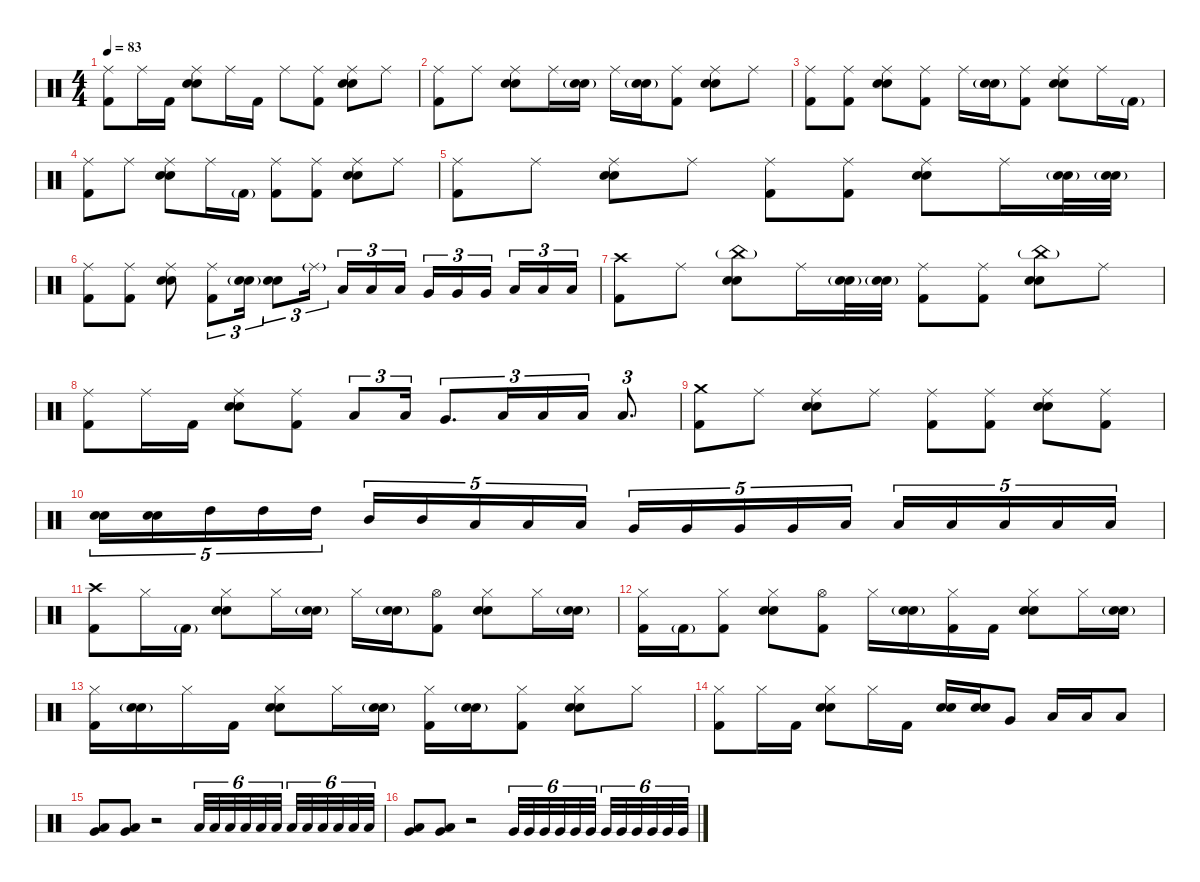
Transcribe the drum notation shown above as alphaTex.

\defaultSystemsLayout 4
\hideDynamics
\bracketExtendMode nobrackets
\singleTrackTrackNamePolicy hidden
\multiTrackTrackNamePolicy hidden
\firstSystemTrackNameMode fullname
\firstSystemTrackNameOrientation horizontal
\otherSystemsTrackNameOrientation horizontal
\track ("Batterie" "drm.") {instrument percussion}
\staff {score}
\articulation defaults
\ts (4 4)
\tempo 83
\clef neutral
\ks c
("Ride (middle)" "Kick (hit) 2").8{dy f beam Down} "Ride (middle)".16{beam Down} "Kick (hit) 2".16{dy mf beam Down} ("Ride (middle)" "Snare (hit) 2" "Snare (hit) 2").8{dy f beam Down} "Ride (middle)".16{beam Down} "Kick (hit) 2".16{dy mf beam Down} "Ride (middle)".8{dy f beam Down} ("Ride (middle)" "Kick (hit) 2").8{beam Down} ("Ride (middle)" "Snare (hit) 2" "Snare (hit) 2").8{beam Down} "Ride (middle)".8{beam Down} |
("Ride (middle)" "Kick (hit) 2").8{beam Down} "Ride (middle)".8{beam Down} ("Ride (middle)" "Snare (hit) 2" "Snare (hit) 2").8{beam Down} "Ride (middle)".16{beam Down} ("Snare (hit) 2"{g} "Snare (hit) 2"{g}).16{dy mf beam Down} "Ride (middle)".16{dy f beam Down} ("Snare (hit) 2"{g} "Snare (hit) 2"{g}).16{dy mp beam Down} ("Ride (middle)" "Kick (hit) 2").8{dy f beam Down} ("Ride (middle)" "Snare (hit) 2" "Snare (hit) 2").8{beam Down} "Ride (middle)".8{beam Down} |
("Ride (middle)" "Kick (hit) 2").8{beam Down} ("Ride (middle)" "Kick (hit) 2").8{beam Down} ("Ride (middle)" "Snare (hit) 2" "Snare (hit) 2").8{beam Down} ("Ride (middle)" "Kick (hit) 2").8{beam Down} "Ride (middle)".16{beam Down} ("Snare (hit) 2"{g} "Snare (hit) 2"{g}).16{dy mp beam Down} ("Ride (middle)" "Kick (hit) 2").8{dy f beam Down} ("Ride (middle)" "Snare (hit) 2" "Snare (hit) 2").8{beam Down} "Ride (middle)".16{beam Down} "Kick (hit) 2"{g}.16{beam Down} |
("Ride (middle)" "Kick (hit) 2").8{beam Down} "Ride (middle)".8{beam Down} ("Ride (middle)" "Snare (hit) 2" "Snare (hit) 2").8{beam Down} "Ride (middle)".16{beam Down} "Kick (hit) 2"{g}.16{dy mf beam Down} ("Ride (middle)" "Kick (hit) 2").8{dy f beam Down} ("Ride (middle)" "Kick (hit) 2").8{beam Down} ("Ride (middle)" "Snare (hit) 2" "Snare (hit) 2").8{beam Down} "Ride (middle)".8{beam Down} |
("Ride (middle)" "Kick (hit) 2").8{beam Down} "Ride (middle)".8{beam Down} ("Ride (middle)" "Snare (hit) 2" "Snare (hit) 2").8{beam Down} "Ride (middle)".8{beam Down} ("Ride (middle)" "Kick (hit) 2").8{beam Down} ("Ride (middle)" "Kick (hit) 2").8{beam Down} ("Ride (middle)" "Snare (hit) 2" "Snare (hit) 2").8{beam Down} "Ride (middle)".16{beam Down} ("Snare (hit) 2"{g} "Snare (hit) 2"{g}).32{dy mp beam Down} ("Snare (hit) 2"{g} "Snare (hit) 2"{g}).32{beam Down} |
("Ride (middle)" "Kick (hit) 2").8{dy f beam Down} ("Ride (middle)" "Kick (hit) 2").8{beam Down} ("Ride (middle)" "Snare (hit) 2" "Snare (hit) 2").8{beam Down} ("Ride (middle)" "Kick (hit) 2").8{tu (3 2) beam Down} ("Snare (hit) 2"{g} "Snare (hit) 2"{g}).16{tu (3 2) beam Down} ("Snare (hit) 2" "Snare (hit) 2").8{tu (3 2) beam Down} "Ride (middle)"{g}.16{tu (3 2) beam Down} "Low Tom (hit)".16{tu (3 2) beam Up} "Low Tom (hit)".16{tu (3 2) beam Up} "Low Tom (hit)".16{tu (3 2) beam Up} "Very Low Tom (hit)".16{tu (3 2) beam Up} "Very Low Tom (hit)".16{tu (3 2) beam Up} "Very Low Tom (hit)".16{tu (3 2) beam Up} "Low Floor Tom (hit)".16{tu (3 2) beam Up} "Low Floor Tom (hit)".16{tu (3 2) beam Up} "Low Floor Tom (hit)".16{tu (3 2) beam Up} |
("Crash high (hit)" "Kick (hit) 2").8{dy mf beam Down} "Ride (middle)".8{dy f beam Down} ("China (hit)"{g} "Snare (hit) 2" "Snare (hit) 2").8{dy mf beam Down} "Ride (middle)".16{dy f beam Down} ("Snare (hit) 2"{g} "Snare (hit) 2"{g}).32{dy mp beam Down} ("Snare (hit) 2"{g} "Snare (hit) 2"{g}).32{beam Down} ("Ride (middle)" "Kick (hit) 2").8{dy f beam Down} ("Ride (middle)" "Kick (hit) 2").8{beam Down} ("China (hit)"{g} "Snare (hit) 2" "Snare (hit) 2").8{dy mf beam Down} "Ride (middle)".8{dy f beam Down} |
("Ride (middle)" "Kick (hit) 2").8{beam Down} "Ride (middle)".16{beam Down} "Kick (hit) 2".16{dy mf beam Down} ("Ride (middle)" "Snare (hit) 2" "Snare (hit) 2").8{dy f beam Down} ("Ride (middle)" "Kick (hit) 2").8{beam Down} "Low Tom (hit)".8{tu (3 2) beam Up} "Low Tom (hit)".16{tu (3 2) beam Up} "Very Low Tom (hit)".8{d tu (3 2) beam Up} "Low Floor Tom (hit)".16{tu (3 2) beam Up} "Low Floor Tom (hit)".16{tu (3 2) beam Up} "Low Floor Tom (hit)".16{tu (3 2) beam Up} "Low Floor Tom (hit)".8{d tu (3 2) beam Up} |
("Crash medium (hit)" "Kick (hit) 2").8{dy mf beam Down} "Ride (middle)".8{dy f beam Down} ("Ride (middle)" "Snare (hit) 2" "Snare (hit) 2").8{beam Down} "Ride (middle)".8{beam Down} ("Ride (middle)" "Kick (hit) 2").8{beam Down} ("Ride (middle)" "Kick (hit) 2").8{beam Down} ("Ride (middle)" "Snare (hit) 2" "Snare (hit) 2").8{beam Down} ("Ride (middle)" "Kick (hit) 2").8{beam Down} |
("Snare (hit) 2" "Snare (hit) 2").16{tu (5 4) beam Down} ("Snare (hit) 2" "Snare (hit) 2").16{tu (5 4) dy mf beam Down} "High Tom (hit)".16{tu (5 4) dy ff beam Down} "High Tom (hit)".16{tu (5 4) dy f beam Down} "High Tom (hit)".16{tu (5 4) beam Down} "Mid Tom (hit)".16{tu (5 4) dy ff beam Up} "Mid Tom (hit)".16{tu (5 4) dy f beam Up} "Low Tom (hit)".16{tu (5 4) dy ff beam Up} "Low Tom (hit)".16{tu (5 4) dy f beam Up} "Low Tom (hit)".16{tu (5 4) beam Up} "Very Low Tom (hit)".16{tu (5 4) dy ff beam Up} "Very Low Tom (hit)".16{tu (5 4) dy f beam Up} "Very Low Tom (hit)".16{tu (5 4) beam Up} "Very Low Tom (hit)".16{tu (5 4) beam Up} "Low Floor Tom (hit)".16{tu (5 4) dy ff beam Up} "Low Floor Tom (hit)".16{tu (5 4) dy f beam Up} "Low Floor Tom (hit)".16{tu (5 4) beam Up} "Low Floor Tom (hit)".16{tu (5 4) dy ff beam Up} "Low Floor Tom (hit)".16{tu (5 4) dy f beam Up} "Low Floor Tom (hit)".16{tu (5 4) beam Up} |
("Crash high (hit)" "Kick (hit) 2").8{beam Down} "Hi-Hat (closed)".16{beam Down} "Kick (hit) 2"{g}.16{beam Down} ("Hi-Hat (closed)" "Snare (hit) 2" "Snare (hit) 2").8{beam Down} "Hi-Hat (closed)".16{beam Down} ("Snare (hit) 2"{g} "Snare (hit) 2"{g}).16{dy mp beam Down} "Hi-Hat (closed)".16{dy f beam Down} ("Snare (hit) 2"{g} "Snare (hit) 2"{g}).16{dy mp beam Down} ("Hi-Hat (open)" "Kick (hit) 2").8{beam Down} ("Hi-Hat (closed)" "Snare (hit) 2" "Snare (hit) 2").8{dy f beam Down} "Hi-Hat (closed)".16{beam Down} ("Snare (hit) 2"{g} "Snare (hit) 2"{g}).16{dy mf beam Down} |
("Hi-Hat (closed)" "Kick (hit) 2").16{dy f beam Down} "Kick (hit) 2"{g}.16{beam Down} ("Hi-Hat (closed)" "Kick (hit) 2").8{beam Down} ("Hi-Hat (closed)" "Snare (hit) 2" "Snare (hit) 2").8{beam Down} ("Hi-Hat (open)" "Kick (hit) 2").8{dy mp beam Down} "Hi-Hat (closed)".16{dy f beam Down} ("Snare (hit) 2"{g} "Snare (hit) 2"{g}).16{dy mf beam Down} ("Hi-Hat (closed)" "Kick (hit) 2").16{dy f beam Down} "Kick (hit) 2".16{dy mf beam Down} ("Hi-Hat (closed)" "Snare (hit) 2" "Snare (hit) 2").8{dy f beam Down} "Hi-Hat (closed)".16{beam Down} ("Snare (hit) 2"{g} "Snare (hit) 2"{g}).16{dy mf beam Down} |
("Hi-Hat (closed)" "Kick (hit) 2").16{dy f beam Down} ("Snare (hit) 2"{g} "Snare (hit) 2"{g}).16{dy mf beam Down} "Hi-Hat (closed)".16{dy f beam Down} "Kick (hit) 2".16{dy mf beam Down} ("Hi-Hat (closed)" "Snare (hit) 2" "Snare (hit) 2").8{dy f beam Down} "Hi-Hat (closed)".16{beam Down} ("Snare (hit) 2"{g} "Snare (hit) 2"{g}).16{dy mp beam Down} ("Hi-Hat (closed)" "Kick (hit) 2").16{dy f beam Down} ("Snare (hit) 2"{g} "Snare (hit) 2"{g}).16{dy mp beam Down} ("Hi-Hat (closed)" "Kick (hit) 2").8{dy f beam Down} ("Hi-Hat (closed)" "Snare (hit) 2" "Snare (hit) 2").8{beam Down} "Hi-Hat (closed)".8{beam Down} |
("Hi-Hat (closed)" "Kick (hit) 2").8{beam Down} "Hi-Hat (closed)".16{beam Down} "Kick (hit) 2".16{dy mf beam Down} ("Hi-Hat (closed)" "Snare (hit) 2" "Snare (hit) 2").8{dy f beam Down} "Hi-Hat (closed)".16{beam Down} "Kick (hit) 2".16{dy mf beam Down} ("Snare (hit) 2" "Snare (hit) 2").16{beam Up} ("Snare (hit) 2" "Snare (hit) 2").16{beam Up} "Very Low Tom (hit)".8{dy f beam Up} "Low Floor Tom (hit)".16{beam Up} "Low Floor Tom (hit)".16{beam Up} "Low Floor Tom (hit)".8{beam Up} |
("Very Low Tom (hit)" "Low Floor Tom (hit)").8{beam Up} ("Very Low Tom (hit)" "Low Floor Tom (hit)").8{beam Up} r.2{beam Up} "Low Floor Tom (hit)".32{tu (6 4) beam Up} "Low Floor Tom (hit)".32{tu (6 4) dy mf beam Up} "Low Floor Tom (hit)".32{tu (6 4) dy mp beam Up} "Low Floor Tom (hit)".32{tu (6 4) dy p beam Up} "Low Floor Tom (hit)".32{tu (6 4) beam Up} "Low Floor Tom (hit)".32{tu (6 4) beam Up} "Low Floor Tom (hit)".32{tu (6 4) beam Up} "Low Floor Tom (hit)".32{tu (6 4) beam Up} "Low Floor Tom (hit)".32{tu (6 4) dy mp beam Up} "Low Floor Tom (hit)".32{tu (6 4) dy mf beam Up} "Low Floor Tom (hit)".32{tu (6 4) beam Up} "Low Floor Tom (hit)".32{tu (6 4) dy f beam Up} |
("Very Low Tom (hit)" "Low Floor Tom (hit)").8{beam Up} ("Very Low Tom (hit)" "Low Floor Tom (hit)").8{beam Up} r.2{beam Up} "Very Low Tom (hit)".32{tu (6 4) beam Up} "Very Low Tom (hit)".32{tu (6 4) dy mf beam Up} "Very Low Tom (hit)".32{tu (6 4) dy mp beam Up} "Very Low Tom (hit)".32{tu (6 4) dy p beam Up} "Very Low Tom (hit)".32{tu (6 4) beam Up} "Very Low Tom (hit)".32{tu (6 4) beam Up} "Very Low Tom (hit)".32{tu (6 4) beam Up} "Very Low Tom (hit)".32{tu (6 4) beam Up} "Very Low Tom (hit)".32{tu (6 4) dy mp beam Up} "Very Low Tom (hit)".32{tu (6 4) dy mf beam Up} "Very Low Tom (hit)".32{tu (6 4) beam Up} "Very Low Tom (hit)".32{tu (6 4) dy f beam Up}
